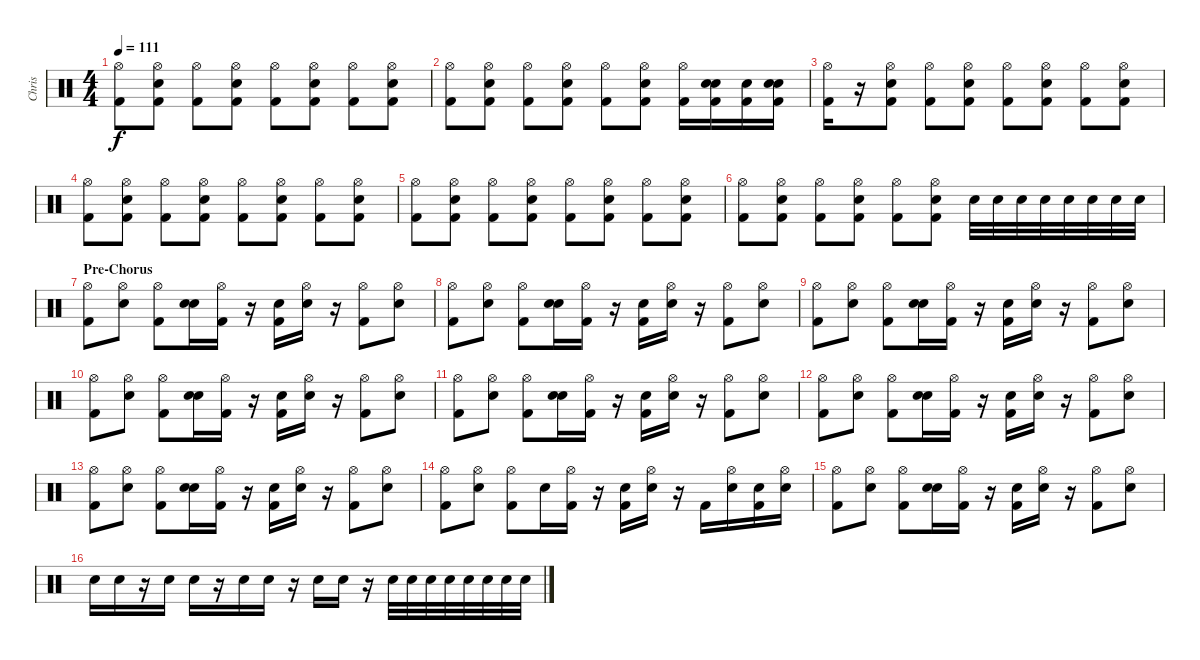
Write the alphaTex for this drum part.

\track ("Chris" "Chris") {instrument percussion}
\staff {score}
\articulation defaults
\ts (4 4)
\tempo 111
\clef neutral
\ks c
("Hi-Hat (open)" "Kick (hit) 2").8{dy f} ("Hi-Hat (open)" "Snare (hit) 2" "Kick (hit) 2").8 ("Hi-Hat (open)" "Kick (hit) 2").8 ("Hi-Hat (open)" "Snare (hit) 2" "Kick (hit) 2").8 ("Hi-Hat (open)" "Kick (hit) 2").8 ("Hi-Hat (open)" "Snare (hit) 2" "Kick (hit) 2").8 ("Hi-Hat (open)" "Kick (hit) 2").8 ("Hi-Hat (open)" "Snare (hit) 2" "Kick (hit) 2").8 |
("Hi-Hat (open)" "Kick (hit) 2").8 ("Hi-Hat (open)" "Snare (hit) 2" "Kick (hit) 2").8 ("Hi-Hat (open)" "Kick (hit) 2").8 ("Hi-Hat (open)" "Snare (hit) 2" "Kick (hit) 2").8 ("Hi-Hat (open)" "Kick (hit) 2").8 ("Hi-Hat (open)" "Snare (hit) 2" "Kick (hit) 2").8 ("Hi-Hat (open)" "Kick (hit) 2").16 ("Snare (hit)" "Snare (hit) 2" "Kick (hit) 2").16 ("Snare (hit)" "Kick (hit) 2").16 ("Snare (hit)" "Snare (hit) 2" "Kick (hit) 2").16 |
("Hi-Hat (open)" "Kick (hit) 2").16 r.16 ("Hi-Hat (open)" "Snare (hit) 2" "Kick (hit) 2").8 ("Hi-Hat (open)" "Kick (hit) 2").8 ("Hi-Hat (open)" "Snare (hit) 2" "Kick (hit) 2").8 ("Hi-Hat (open)" "Kick (hit) 2").8 ("Hi-Hat (open)" "Snare (hit) 2" "Kick (hit) 2").8 ("Hi-Hat (open)" "Kick (hit) 2").8 ("Hi-Hat (open)" "Snare (hit) 2" "Kick (hit) 2").8 |
("Hi-Hat (open)" "Kick (hit) 2").8 ("Hi-Hat (open)" "Snare (hit) 2" "Kick (hit) 2").8 ("Hi-Hat (open)" "Kick (hit) 2").8 ("Hi-Hat (open)" "Snare (hit) 2" "Kick (hit) 2").8 ("Hi-Hat (open)" "Kick (hit) 2").8 ("Hi-Hat (open)" "Snare (hit) 2" "Kick (hit) 2").8 ("Hi-Hat (open)" "Kick (hit) 2").8 ("Hi-Hat (open)" "Snare (hit) 2" "Kick (hit) 2").8 |
("Hi-Hat (open)" "Kick (hit) 2").8 ("Hi-Hat (open)" "Snare (hit) 2" "Kick (hit) 2").8 ("Hi-Hat (open)" "Kick (hit) 2").8 ("Hi-Hat (open)" "Snare (hit) 2" "Kick (hit) 2").8 ("Hi-Hat (open)" "Kick (hit) 2").8 ("Hi-Hat (open)" "Snare (hit) 2" "Kick (hit) 2").8 ("Hi-Hat (open)" "Kick (hit) 2").8 ("Hi-Hat (open)" "Snare (hit) 2" "Kick (hit) 2").8 |
("Hi-Hat (open)" "Kick (hit) 2").8 ("Hi-Hat (open)" "Snare (hit) 2" "Kick (hit) 2").8 ("Hi-Hat (open)" "Kick (hit) 2").8 ("Hi-Hat (open)" "Snare (hit) 2" "Kick (hit) 2").8 ("Hi-Hat (open)" "Kick (hit) 2").8 ("Hi-Hat (open)" "Snare (hit) 2" "Kick (hit) 2").8 "Snare (hit) 2".32 "Snare (hit) 2".32 "Snare (hit) 2".32 "Snare (hit) 2".32 "Snare (hit) 2".32 "Snare (hit) 2".32 "Snare (hit) 2".32 "Snare (hit) 2".32 |
\section ("" "Pre-Chorus")
("Hi-Hat (open)" "Kick (hit) 2").8 ("Hi-Hat (open)" "Snare (hit) 2").8 ("Hi-Hat (open)" "Kick (hit) 2").8 ("Snare (hit)" "Snare (hit) 2").16 ("Hi-Hat (open)" "Kick (hit) 2").16 r.16 ("Snare (hit)" "Kick (hit) 2").16 ("Hi-Hat (open)" "Snare (hit) 2").16 r.16 ("Hi-Hat (open)" "Kick (hit) 2").8 ("Hi-Hat (open)" "Snare (hit) 2").8 |
("Hi-Hat (open)" "Kick (hit) 2").8 ("Hi-Hat (open)" "Snare (hit) 2").8 ("Hi-Hat (open)" "Kick (hit) 2").8 ("Snare (hit)" "Snare (hit) 2").16 ("Hi-Hat (open)" "Kick (hit) 2").16 r.16 ("Snare (hit)" "Kick (hit) 2").16 ("Hi-Hat (open)" "Snare (hit) 2").16 r.16 ("Hi-Hat (open)" "Kick (hit) 2").8 ("Hi-Hat (open)" "Snare (hit) 2").8 |
("Hi-Hat (open)" "Kick (hit) 2").8 ("Hi-Hat (open)" "Snare (hit) 2").8 ("Hi-Hat (open)" "Kick (hit) 2").8 ("Snare (hit)" "Snare (hit) 2").16 ("Hi-Hat (open)" "Kick (hit) 2").16 r.16 ("Snare (hit)" "Kick (hit) 2").16 ("Hi-Hat (open)" "Snare (hit) 2").16 r.16 ("Hi-Hat (open)" "Kick (hit) 2").8 ("Hi-Hat (open)" "Snare (hit) 2").8 |
("Hi-Hat (open)" "Kick (hit) 2").8 ("Hi-Hat (open)" "Snare (hit) 2").8 ("Hi-Hat (open)" "Kick (hit) 2").8 ("Snare (hit)" "Snare (hit) 2").16 ("Hi-Hat (open)" "Kick (hit) 2").16 r.16 ("Snare (hit)" "Kick (hit) 2").16 ("Hi-Hat (open)" "Snare (hit) 2").16 r.16 ("Hi-Hat (open)" "Kick (hit) 2").8 ("Hi-Hat (open)" "Snare (hit) 2").8 |
("Hi-Hat (open)" "Kick (hit) 2").8 ("Hi-Hat (open)" "Snare (hit) 2").8 ("Hi-Hat (open)" "Kick (hit) 2").8 ("Snare (hit)" "Snare (hit) 2").16 ("Hi-Hat (open)" "Kick (hit) 2").16 r.16 ("Snare (hit)" "Kick (hit) 2").16 ("Hi-Hat (open)" "Snare (hit) 2").16 r.16 ("Hi-Hat (open)" "Kick (hit) 2").8 ("Hi-Hat (open)" "Snare (hit) 2").8 |
("Hi-Hat (open)" "Kick (hit) 2").8 ("Hi-Hat (open)" "Snare (hit) 2").8 ("Hi-Hat (open)" "Kick (hit) 2").8 ("Snare (hit)" "Snare (hit) 2").16 ("Hi-Hat (open)" "Kick (hit) 2").16 r.16 ("Snare (hit)" "Kick (hit) 2").16 ("Hi-Hat (open)" "Snare (hit) 2").16 r.16 ("Hi-Hat (open)" "Kick (hit) 2").8 ("Hi-Hat (open)" "Snare (hit) 2").8 |
("Hi-Hat (open)" "Kick (hit) 2").8 ("Hi-Hat (open)" "Snare (hit) 2").8 ("Hi-Hat (open)" "Kick (hit) 2").8 ("Snare (hit)" "Snare (hit) 2").16 ("Hi-Hat (open)" "Kick (hit) 2").16 r.16 ("Snare (hit)" "Kick (hit) 2").16 ("Hi-Hat (open)" "Snare (hit) 2").16 r.16 ("Hi-Hat (open)" "Kick (hit) 2").8 ("Hi-Hat (open)" "Snare (hit) 2").8 |
("Hi-Hat (open)" "Kick (hit) 2").8 ("Hi-Hat (open)" "Snare (hit) 2").8 ("Hi-Hat (open)" "Kick (hit) 2").8 "Snare (hit) 2".16 ("Hi-Hat (open)" "Kick (hit) 2").16 r.16 ("Snare (hit)" "Kick (hit) 2").16 ("Hi-Hat (open)" "Snare (hit) 2").16 r.16 "Kick (hit) 2".16 ("Hi-Hat (open)" "Snare (hit) 2").16 ("Snare (hit)" "Kick (hit) 2").16 ("Hi-Hat (open)" "Snare (hit) 2").16 |
("Hi-Hat (open)" "Kick (hit) 2").8 ("Hi-Hat (open)" "Snare (hit) 2").8 ("Hi-Hat (open)" "Kick (hit) 2").8 ("Snare (hit)" "Snare (hit) 2").16 ("Hi-Hat (open)" "Kick (hit) 2").16 r.16 ("Snare (hit)" "Kick (hit) 2").16 ("Hi-Hat (open)" "Snare (hit) 2").16 r.16 ("Hi-Hat (open)" "Kick (hit) 2").8 ("Hi-Hat (open)" "Snare (hit) 2").8 |
"Snare (hit) 2".16 "Snare (hit) 2".16 r.16 "Snare (hit) 2".16 "Snare (hit) 2".16 r.16 "Snare (hit) 2".16 "Snare (hit) 2".16 r.16 "Snare (hit) 2".16 "Snare (hit) 2".16 r.16 "Snare (hit) 2".32 "Snare (hit) 2".32 "Snare (hit) 2".32 "Snare (hit) 2".32 "Snare (hit) 2".32 "Snare (hit) 2".32 "Snare (hit) 2".32 "Snare (hit) 2".32
